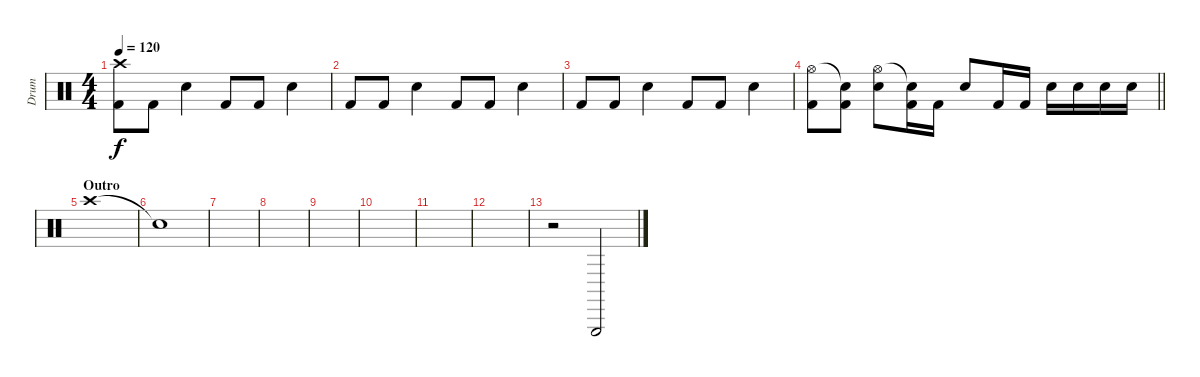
\track ("Drum" "Drum") {instrument percussion}
\staff {score}
\articulation defaults
\ts (4 4)
\tempo 120
\clef neutral
\ks c
("Crash high (hit)" "Kick (hit) 2").8{dy f} "Kick (hit) 2".8 "Electric Snare (hit)".4 "Kick (hit) 2".8 "Kick (hit) 2".8 "Electric Snare (hit)".4 |
"Kick (hit) 2".8 "Kick (hit) 2".8 "Electric Snare (hit)".4 "Kick (hit) 2".8 "Kick (hit) 2".8 "Electric Snare (hit)".4 |
"Kick (hit) 2".8 "Kick (hit) 2".8 "Electric Snare (hit)".4 "Kick (hit) 2".8 "Kick (hit) 2".8 "Electric Snare (hit)".4 |
\barLineRight lightlight
("Hi-Hat (open)" "Kick (hit) 2").8 ("Snare (hit)"{t} "Kick (hit) 2").8 ("Hi-Hat (open)" "Electric Snare (hit)").8 ("Snare (hit)"{t} "Kick (hit) 2").16 "Kick (hit) 2".16 "Electric Snare (hit)".8 "Kick (hit) 2".16 "Kick (hit) 2".16 "Electric Snare (hit)".16 "Electric Snare (hit)".16 "Electric Snare (hit)".16 "Electric Snare (hit)".16 |
\section ("" "Outro")
"Crash high (hit)".1 |
"Snare (hit)"{t}.1 |
|
|
|
|
|
|
r.2 "Triangle (hit)".2
